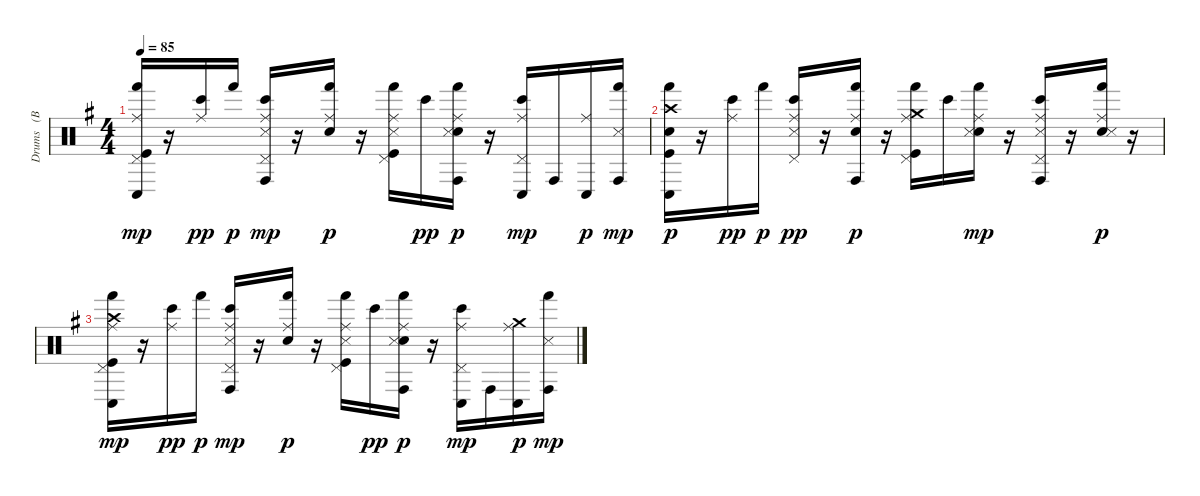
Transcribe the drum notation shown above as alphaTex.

\track ("Drums   (BB)" "Drums   (B") {instrument percussion}
\staff {score}
\articulation defaults
\ts (4 4)
\tempo 85
\clef neutral
\ks eminor
("Kick (hit)" "Pedal Hi-Hat (hit)" "Ride (middle)" "Hand (hit)" "Conga low (hit)").16{dy mp} r.16 ("Ride (middle)" "Bongo High (hit)").16{dy pp} "Hand (hit)".16{dy p} ("Pedal Hi-Hat (hit)" "Snare (side stick) 3" "Ride (middle)" "Bongo High (hit)" "Conga high (hit)").16{dy mp} r.16 ("Snare (hit) 2" "Ride (middle)" "Hand (hit)").16{dy p} r.16 ("Kick (hit)" "Pedal Hi-Hat (hit)" "Snare (side stick) 3" "Ride (middle)" "Hand (hit)").16 "Bongo High (hit)".16{dy pp} ("Snare (hit) 2" "Snare (side stick) 3" "Ride (middle)" "Hand (hit)" "Conga high (hit)").16{dy p} r.16 ("Pedal Hi-Hat (hit)" "Ride (middle)" "Bongo High (hit)" "Conga low (hit)").16{dy mp} "Conga high (hit)".16 ("Ride (middle)" "Conga low (hit)").16{dy p} ("Snare (side stick) 3" "Hand (hit)" "Conga high (hit)").16{dy mp} |
("Kick (hit)" "Snare (hit) 2" "Crash high (hit)" "Hand (hit)" "Conga low (hit)").16{dy p} r.16 ("Ride (middle)" "Bongo High (hit)").16{dy pp} "Hand (hit)".16{dy p} ("Pedal Hi-Hat (hit)" "Snare (side stick) 3" "Ride (middle)" "Bongo High (hit)").16{dy pp} r.16 ("Snare (hit) 2" "Ride (middle)" "Hand (hit)" "Conga high (hit)").16{dy p} r.16 ("Kick (hit)" "Pedal Hi-Hat (hit)" "Ride (middle)" "Hand (hit)" "Crash medium (hit)").16 "Bongo High (hit)".16 ("Snare (hit) 2" "Snare (side stick) 3" "Ride (middle)" "Hand (hit)").16{dy mp} r.16 ("Pedal Hi-Hat (hit)" "Snare (side stick) 3" "Ride (middle)" "Bongo High (hit)" "Conga high (hit)").16 r.16 ("Snare (hit) 2" "Snare (side stick) 3" "Ride (middle)" "Hand (hit)").16{dy p} r.16 |
("Kick (hit)" "Pedal Hi-Hat (hit)" "Ride (middle)" "Hand (hit)" "Conga low (hit)" "Crash high (hit)").16{dy mp} r.16 ("Ride (middle)" "Bongo High (hit)").16{dy pp} "Hand (hit)".16{dy p} ("Pedal Hi-Hat (hit)" "Snare (side stick) 3" "Ride (middle)" "Bongo High (hit)" "Conga high (hit)").16{dy mp} r.16 ("Snare (hit) 2" "Ride (middle)" "Hand (hit)").16{dy p} r.16 ("Kick (hit)" "Pedal Hi-Hat (hit)" "Snare (side stick) 3" "Ride (middle)" "Hand (hit)").16 "Bongo High (hit)".16{dy pp} ("Snare (hit) 2" "Snare (side stick) 3" "Ride (middle)" "Hand (hit)" "Conga high (hit)").16{dy p} r.16 ("Pedal Hi-Hat (hit)" "Ride (middle)" "Bongo High (hit)" "Conga low (hit)").16{dy mp} "Conga high (hit)".16 ("Ride (middle)" "Conga low (hit)" "Crash medium (hit)").16{dy p} ("Snare (side stick) 3" "Hand (hit)" "Conga high (hit)").16{dy mp}
